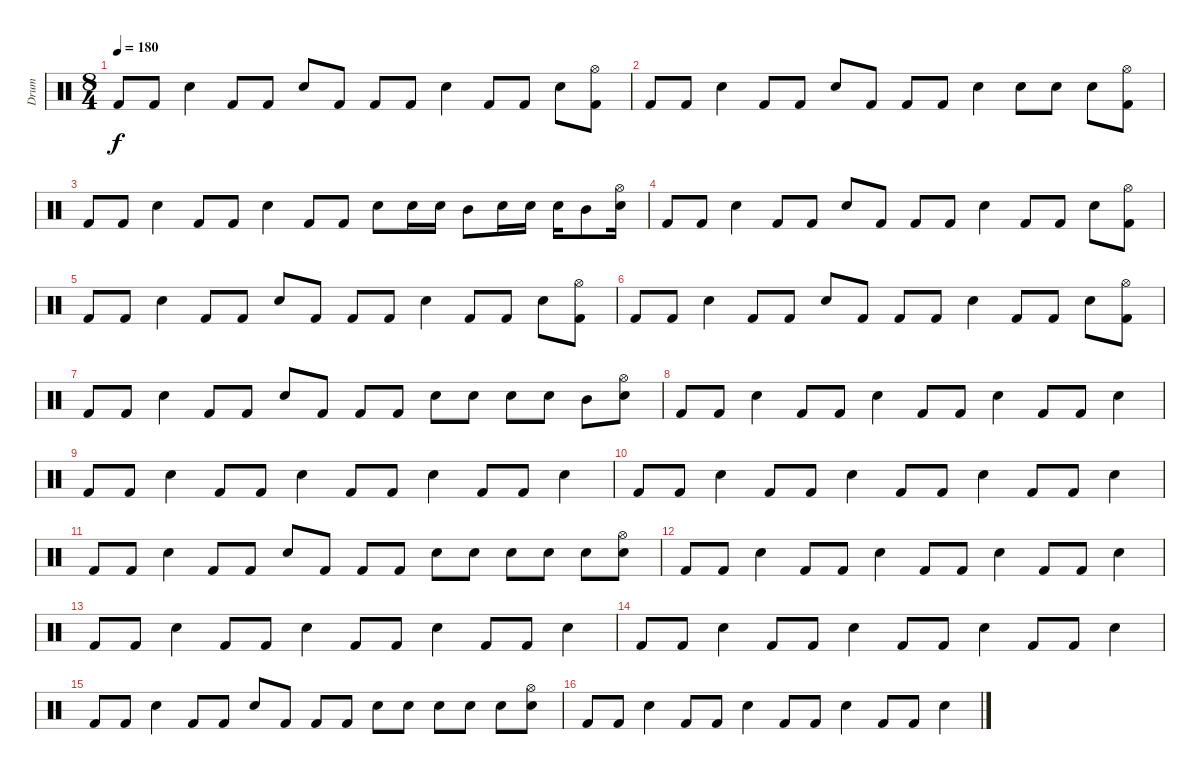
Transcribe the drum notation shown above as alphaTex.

\track ("Drum" "Drum") {instrument percussion}
\staff {score}
\articulation defaults
\ts (8 4)
\tempo 180
\clef neutral
\ks c "Kick (hit) 2".8{dy f} "Kick (hit) 2".8 "Electric Snare (hit)".4 "Kick (hit) 2".8 "Kick (hit) 2".8 "Electric Snare (hit)".8 "Kick (hit) 2".8 "Kick (hit) 2".8 "Kick (hit) 2".8 "Electric Snare (hit)".4 "Kick (hit) 2".8 "Kick (hit) 2".8 "Electric Snare (hit)".8
("Kick (hit) 2" "Hi-Hat (open)").8 |
"Kick (hit) 2".8 "Kick (hit) 2".8 "Electric Snare (hit)".4 "Kick (hit) 2".8 "Kick (hit) 2".8 "Electric Snare (hit)".8 "Kick (hit) 2".8 "Kick (hit) 2".8 "Kick (hit) 2".8 "Electric Snare (hit)".4 "Electric Snare (hit)".8 "Electric Snare (hit)".8 "Electric Snare (hit)".8 ("Kick (hit) 2" "Hi-Hat (open)").8 |
"Kick (hit) 2".8 "Kick (hit) 2".8 "Electric Snare (hit)".4 "Kick (hit) 2".8 "Kick (hit) 2".8 "Electric Snare (hit)".4 "Kick (hit) 2".8 "Kick (hit) 2".8 "Electric Snare (hit)".8 "Electric Snare (hit)".16 "Electric Snare (hit)".16 "Mid Tom (hit)".8 "Electric Snare (hit)".16 "Electric Snare (hit)".16 "Electric Snare (hit)".16 "Mid Tom (hit)".8 ("Electric Snare (hit)" "Hi-Hat (open)").16 |
"Kick (hit) 2".8 "Kick (hit) 2".8 "Electric Snare (hit)".4 "Kick (hit) 2".8 "Kick (hit) 2".8 "Electric Snare (hit)".8 "Kick (hit) 2".8 "Kick (hit) 2".8 "Kick (hit) 2".8 "Electric Snare (hit)".4 "Kick (hit) 2".8 "Kick (hit) 2".8 "Electric Snare (hit)".8 ("Kick (hit) 2" "Hi-Hat (open)").8 |
"Kick (hit) 2".8 "Kick (hit) 2".8 "Electric Snare (hit)".4 "Kick (hit) 2".8 "Kick (hit) 2".8 "Electric Snare (hit)".8 "Kick (hit) 2".8 "Kick (hit) 2".8 "Kick (hit) 2".8 "Electric Snare (hit)".4 "Kick (hit) 2".8 "Kick (hit) 2".8 "Electric Snare (hit)".8 ("Kick (hit) 2" "Hi-Hat (open)").8 |
"Kick (hit) 2".8 "Kick (hit) 2".8 "Electric Snare (hit)".4 "Kick (hit) 2".8 "Kick (hit) 2".8 "Electric Snare (hit)".8 "Kick (hit) 2".8 "Kick (hit) 2".8 "Kick (hit) 2".8 "Electric Snare (hit)".4 "Kick (hit) 2".8 "Kick (hit) 2".8 "Electric Snare (hit)".8 ("Kick (hit) 2" "Hi-Hat (open)").8 |
"Kick (hit) 2".8 "Kick (hit) 2".8 "Electric Snare (hit)".4 "Kick (hit) 2".8 "Kick (hit) 2".8 "Electric Snare (hit)".8 "Kick (hit) 2".8 "Kick (hit) 2".8 "Kick (hit) 2".8 "Electric Snare (hit)".8 "Electric Snare (hit)".8 "Electric Snare (hit)".8 "Electric Snare (hit)".8 "Mid Tom (hit)".8 ("Electric Snare (hit)" "Hi-Hat (open)").8 |
"Kick (hit) 2".8 "Kick (hit) 2".8 "Electric Snare (hit)".4 "Kick (hit) 2".8 "Kick (hit) 2".8 "Electric Snare (hit)".4 "Kick (hit) 2".8 "Kick (hit) 2".8 "Electric Snare (hit)".4 "Kick (hit) 2".8 "Kick (hit) 2".8 "Electric Snare (hit)".4 |
"Kick (hit) 2".8 "Kick (hit) 2".8 "Electric Snare (hit)".4 "Kick (hit) 2".8 "Kick (hit) 2".8 "Electric Snare (hit)".4 "Kick (hit) 2".8 "Kick (hit) 2".8 "Electric Snare (hit)".4 "Kick (hit) 2".8 "Kick (hit) 2".8 "Electric Snare (hit)".4 |
"Kick (hit) 2".8 "Kick (hit) 2".8 "Electric Snare (hit)".4 "Kick (hit) 2".8 "Kick (hit) 2".8 "Electric Snare (hit)".4 "Kick (hit) 2".8 "Kick (hit) 2".8 "Electric Snare (hit)".4 "Kick (hit) 2".8 "Kick (hit) 2".8 "Electric Snare (hit)".4 |
"Kick (hit) 2".8 "Kick (hit) 2".8 "Electric Snare (hit)".4 "Kick (hit) 2".8 "Kick (hit) 2".8 "Electric Snare (hit)".8 "Kick (hit) 2".8 "Kick (hit) 2".8 "Kick (hit) 2".8 "Electric Snare (hit)".8 "Electric Snare (hit)".8 "Electric Snare (hit)".8 "Electric Snare (hit)".8 "Electric Snare (hit)".8 ("Electric Snare (hit)" "Hi-Hat (open)").8 |
"Kick (hit) 2".8 "Kick (hit) 2".8 "Electric Snare (hit)".4 "Kick (hit) 2".8 "Kick (hit) 2".8 "Electric Snare (hit)".4 "Kick (hit) 2".8 "Kick (hit) 2".8 "Electric Snare (hit)".4 "Kick (hit) 2".8 "Kick (hit) 2".8 "Electric Snare (hit)".4 |
"Kick (hit) 2".8 "Kick (hit) 2".8 "Electric Snare (hit)".4 "Kick (hit) 2".8 "Kick (hit) 2".8 "Electric Snare (hit)".4 "Kick (hit) 2".8 "Kick (hit) 2".8 "Electric Snare (hit)".4 "Kick (hit) 2".8 "Kick (hit) 2".8 "Electric Snare (hit)".4 |
"Kick (hit) 2".8 "Kick (hit) 2".8 "Electric Snare (hit)".4 "Kick (hit) 2".8 "Kick (hit) 2".8 "Electric Snare (hit)".4 "Kick (hit) 2".8 "Kick (hit) 2".8 "Electric Snare (hit)".4 "Kick (hit) 2".8 "Kick (hit) 2".8 "Electric Snare (hit)".4 |
"Kick (hit) 2".8 "Kick (hit) 2".8 "Electric Snare (hit)".4 "Kick (hit) 2".8 "Kick (hit) 2".8 "Electric Snare (hit)".8 "Kick (hit) 2".8 "Kick (hit) 2".8 "Kick (hit) 2".8 "Electric Snare (hit)".8 "Electric Snare (hit)".8 "Electric Snare (hit)".8 "Electric Snare (hit)".8 "Electric Snare (hit)".8 ("Electric Snare (hit)" "Hi-Hat (open)").8 |
"Kick (hit) 2".8 "Kick (hit) 2".8 "Electric Snare (hit)".4 "Kick (hit) 2".8 "Kick (hit) 2".8 "Electric Snare (hit)".4 "Kick (hit) 2".8 "Kick (hit) 2".8 "Electric Snare (hit)".4 "Kick (hit) 2".8 "Kick (hit) 2".8 "Electric Snare (hit)".4
